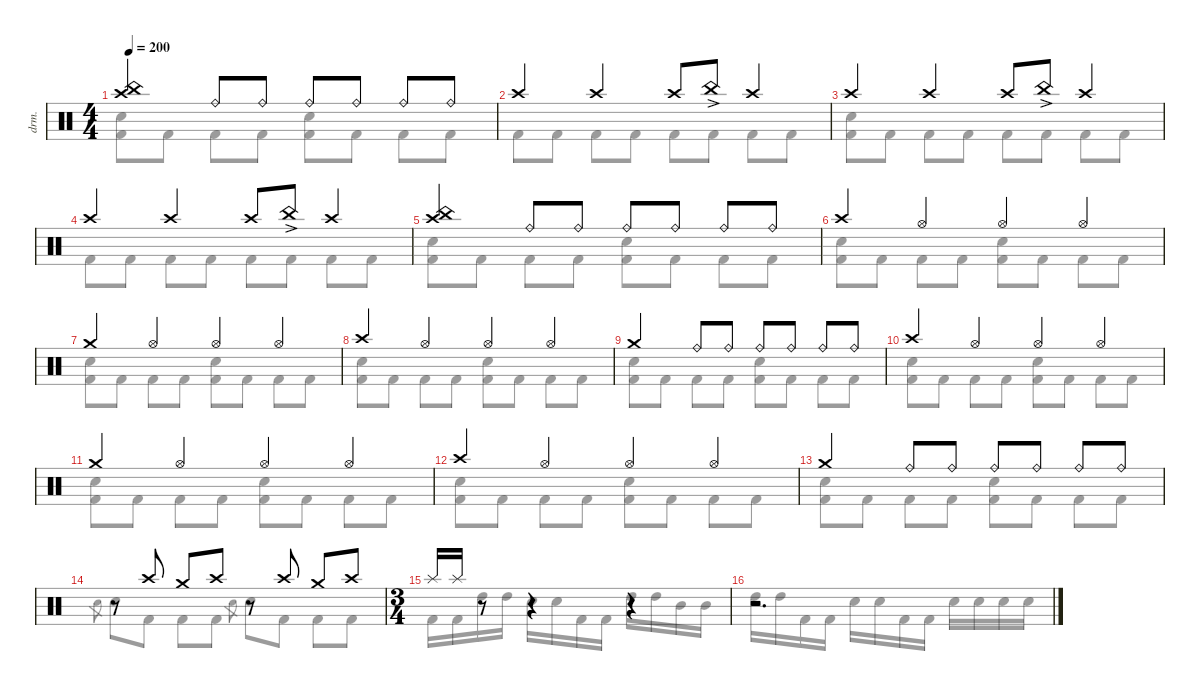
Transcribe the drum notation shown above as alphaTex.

\defaultSystemsLayout 4
\hideDynamics
\bracketExtendMode nobrackets
\otherSystemsTrackNameOrientation horizontal
\track ("B. Richardson Drums" "drm.") {instrument percussion}
\staff {score}
\articulation defaults
\voice
\ts (4 4)
\tempo 200
\clef neutral
\ks c
("Crash high (hit)" "China (hit)").4{dy mf beam Up} "Ride (bell)".8{beam Up} "Ride (bell)".8{beam Up} "Ride (bell)".8{beam Up} "Ride (bell)".8{beam Up} "Ride (bell)".8{beam Up} "Ride (bell)".8{beam Up} |
"Crash high (hit)".4{beam Up} "Crash high (hit)".4{beam Up} "Crash high (hit)".8{beam Up} "China (hit)"{ac}.8{dy f beam Up} "Crash high (hit)".4{dy mf beam Up} |
"Crash high (hit)".4{beam Up} "Crash high (hit)".4{beam Up} "Crash high (hit)".8{beam Up} "China (hit)"{ac}.8{dy f beam Up} "Crash high (hit)".4{dy mf beam Up} |
"Crash high (hit)".4{beam Up} "Crash high (hit)".4{beam Up} "Crash high (hit)".8{beam Up} "China (hit)"{ac}.8{dy f beam Up} "Crash high (hit)".4{dy mf beam Up} |
("Crash high (hit)" "China (hit)").4{beam Up} "Ride (bell)".8{beam Up} "Ride (bell)".8{beam Up} "Ride (bell)".8{beam Up} "Ride (bell)".8{beam Up} "Ride (bell)".8{beam Up} "Ride (bell)".8{beam Up} |
"Crash high (hit)".4{beam Up} "Hi-Hat (open)".4{beam Up} "Hi-Hat (open)".4{beam Up} "Hi-Hat (open)".4{beam Up} |
"Crash medium (hit)".4{beam Up} "Hi-Hat (open)".4{beam Up} "Hi-Hat (open)".4{beam Up} "Hi-Hat (open)".4{beam Up} |
"Crash high (hit)".4{beam Up} "Hi-Hat (open)".4{beam Up} "Hi-Hat (open)".4{beam Up} "Hi-Hat (open)".4{beam Up} |
"Crash medium (hit)".4{beam Up} "Ride (bell)".8{beam Up} "Ride (bell)".8{beam Up} "Ride (bell)".8{beam Up} "Ride (bell)".8{beam Up} "Ride (bell)".8{beam Up} "Ride (bell)".8{beam Up} |
"Crash high (hit)".4{beam Up} "Hi-Hat (open)".4{beam Up} "Hi-Hat (open)".4{beam Up} "Hi-Hat (open)".4{beam Up} |
"Crash medium (hit)".4{beam Up} "Hi-Hat (open)".4{beam Up} "Hi-Hat (open)".4{beam Up} "Hi-Hat (open)".4{beam Up} |
"Crash high (hit)".4{beam Up} "Hi-Hat (open)".4{beam Up} "Hi-Hat (open)".4{beam Up} "Hi-Hat (open)".4{beam Up} |
"Crash medium (hit)".4{beam Up} "Ride (bell)".8{beam Up} "Ride (bell)".8{beam Up} "Ride (bell)".8{beam Up} "Ride (bell)".8{beam Up} "Ride (bell)".8{beam Up} "Ride (bell)".8{beam Up} |
r.8{beam Up} "Crash high (hit)".8{beam Up} "Crash medium (hit)".8{beam Up} "Crash high (hit)".8{beam Up} r.8{beam Up} "Crash high (hit)".8{beam Up} "Crash medium (hit)".8{beam Up} "Crash high (hit)".8{beam Up} |
\ts (3 4)
\beaming (8 2 2 2)
"Splash (hit)".16{beam Up} "Splash (hit)".16{beam Up} r.8{beam Up} r.4{beam Up} r.4{beam Up} |
r.2{d beam Up}
\voice
\clef neutral
\ottava regular
\simile none
\ks c
("Snare (hit) 2" "Kick (hit) 2").8{dy fff beam Down} "Kick (hit) 2".8{beam Down} "Kick (hit) 2".8{beam Down} "Kick (hit) 2".8{beam Down} ("Snare (hit) 2" "Kick (hit) 2").8{beam Down} "Kick (hit) 2".8{beam Down} "Kick (hit) 2".8{beam Down} "Kick (hit) 2".8{beam Down} |
"Kick (hit) 2".8{beam Down} "Kick (hit) 2".8{beam Down} "Kick (hit) 2".8{beam Down} "Kick (hit) 2".8{beam Down} "Kick (hit) 2".8{beam Down} "Kick (hit) 2".8{beam Down} "Kick (hit) 2".8{beam Down} "Kick (hit) 2".8{beam Down} |
("Snare (hit) 2" "Kick (hit) 2").8{beam Down} "Kick (hit) 2".8{beam Down} "Kick (hit) 2".8{beam Down} "Kick (hit) 2".8{beam Down} "Kick (hit) 2".8{beam Down} "Kick (hit) 2".8{beam Down} "Kick (hit) 2".8{beam Down} "Kick (hit) 2".8{beam Down} |
"Kick (hit) 2".8{beam Down} "Kick (hit) 2".8{beam Down} "Kick (hit) 2".8{beam Down} "Kick (hit) 2".8{beam Down} "Kick (hit) 2".8{beam Down} "Kick (hit) 2".8{beam Down} "Kick (hit) 2".8{beam Down} "Kick (hit) 2".8{beam Down} |
("Snare (hit) 2" "Kick (hit) 2").8{beam Down} "Kick (hit) 2".8{beam Down} "Kick (hit) 2".8{beam Down} "Kick (hit) 2".8{beam Down} ("Snare (hit) 2" "Kick (hit) 2").8{beam Down} "Kick (hit) 2".8{beam Down} "Kick (hit) 2".8{beam Down} "Kick (hit) 2".8{beam Down} |
("Snare (hit) 2" "Kick (hit) 2").8{beam Down} "Kick (hit) 2".8{beam Down} "Kick (hit) 2".8{beam Down} "Kick (hit) 2".8{beam Down} ("Snare (hit) 2" "Kick (hit) 2").8{beam Down} "Kick (hit) 2".8{beam Down} "Kick (hit) 2".8{beam Down} "Kick (hit) 2".8{beam Down} |
("Snare (hit) 2" "Kick (hit) 2").8{beam Down} "Kick (hit) 2".8{beam Down} "Kick (hit) 2".8{beam Down} "Kick (hit) 2".8{beam Down} ("Snare (hit) 2" "Kick (hit) 2").8{beam Down} "Kick (hit) 2".8{beam Down} "Kick (hit) 2".8{beam Down} "Kick (hit) 2".8{beam Down} |
("Snare (hit) 2" "Kick (hit) 2").8{beam Down} "Kick (hit) 2".8{beam Down} "Kick (hit) 2".8{beam Down} "Kick (hit) 2".8{beam Down} ("Snare (hit) 2" "Kick (hit) 2").8{beam Down} "Kick (hit) 2".8{beam Down} "Kick (hit) 2".8{beam Down} "Kick (hit) 2".8{beam Down} |
("Snare (hit) 2" "Kick (hit) 2").8{beam Down} "Kick (hit) 2".8{beam Down} "Kick (hit) 2".8{beam Down} "Kick (hit) 2".8{beam Down} ("Snare (hit) 2" "Kick (hit) 2").8{beam Down} "Kick (hit) 2".8{beam Down} "Kick (hit) 2".8{beam Down} "Kick (hit) 2".8{beam Down} |
("Snare (hit) 2" "Kick (hit) 2").8{beam Down} "Kick (hit) 2".8{beam Down} "Kick (hit) 2".8{beam Down} "Kick (hit) 2".8{beam Down} ("Snare (hit) 2" "Kick (hit) 2").8{beam Down} "Kick (hit) 2".8{beam Down} "Kick (hit) 2".8{beam Down} "Kick (hit) 2".8{beam Down} |
("Snare (hit) 2" "Kick (hit) 2").8{beam Down} "Kick (hit) 2".8{beam Down} "Kick (hit) 2".8{beam Down} "Kick (hit) 2".8{beam Down} ("Snare (hit) 2" "Kick (hit) 2").8{beam Down} "Kick (hit) 2".8{beam Down} "Kick (hit) 2".8{beam Down} "Kick (hit) 2".8{beam Down} |
("Snare (hit) 2" "Kick (hit) 2").8{beam Down} "Kick (hit) 2".8{beam Down} "Kick (hit) 2".8{beam Down} "Kick (hit) 2".8{beam Down} ("Snare (hit) 2" "Kick (hit) 2").8{beam Down} "Kick (hit) 2".8{beam Down} "Kick (hit) 2".8{beam Down} "Kick (hit) 2".8{beam Down} |
("Snare (hit) 2" "Kick (hit) 2").8{beam Down} "Kick (hit) 2".8{beam Down} "Kick (hit) 2".8{beam Down} "Kick (hit) 2".8{beam Down} ("Snare (hit) 2" "Kick (hit) 2").8{beam Down} "Kick (hit) 2".8{beam Down} "Kick (hit) 2".8{beam Down} "Kick (hit) 2".8{beam Down} |
"Electric Snare (hit)".8{gr dy ff beam Down} "Snare (hit) 2".8{dy fff beam Down} "Kick (hit) 2".8{beam Down} "Kick (hit) 2".8{beam Down} "Kick (hit) 2".8{beam Down} "Electric Snare (hit)".8{gr dy ff beam Down} "Snare (hit) 2".8{dy fff beam Down} "Kick (hit) 2".8{beam Down} "Kick (hit) 2".8{beam Down} "Kick (hit) 2".8{beam Down} |
"Kick (hit) 2".16{beam Down} "Kick (hit) 2".16{beam Down} "High Tom (hit)".16{beam Down} "High Tom (hit)".16{beam Down} "Snare (hit) 2".16{beam Down} "Snare (hit) 2".16{beam Down} "Kick (hit) 2".16{beam Down} "Kick (hit) 2".16{beam Down} "High Tom (hit)".16{beam Down} "High Tom (hit)".16{beam Down} "Mid Tom (hit)".16{beam Down} "Mid Tom (hit)".16{beam Down} |
"High Tom (hit)".16{beam Down} "High Tom (hit)".16{beam Down} "Kick (hit) 2".16{beam Down} "Kick (hit) 2".16{beam Down} "Snare (hit) 2".16{beam Down} "Snare (hit) 2".16{beam Down} "Kick (hit) 2".16{beam Down} "Kick (hit) 2".16{beam Down} "Snare (hit) 2".16{beam Down} "Snare (hit) 2".16{beam Down} "Snare (hit) 2".16{beam Down} "Snare (hit) 2".16{beam Down}
